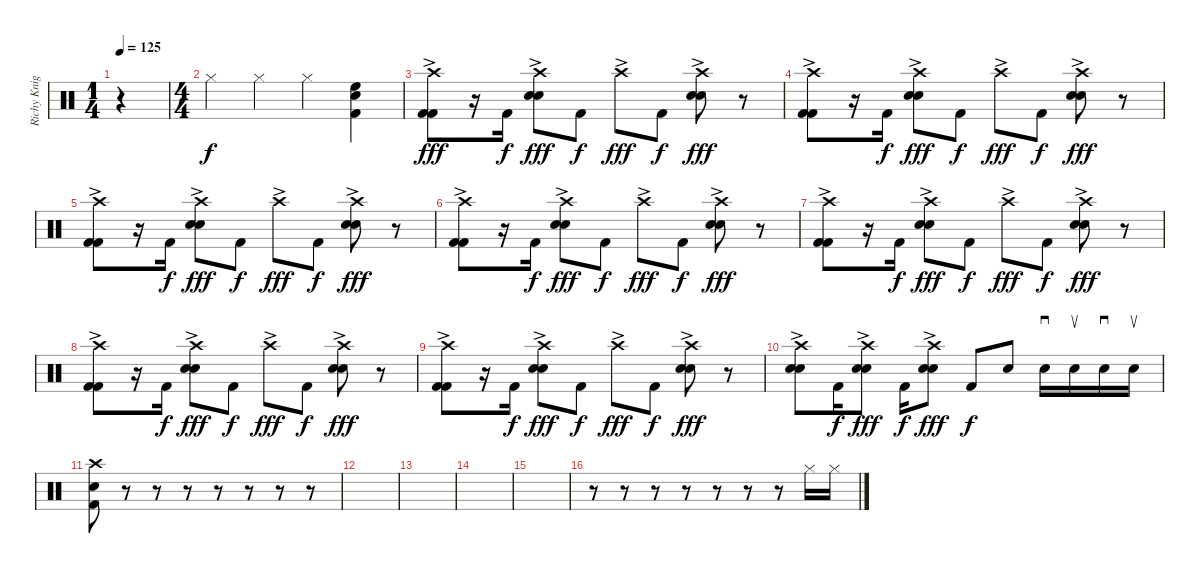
\track ("Richy Knight" "Richy Knig") {instrument percussion}
\staff {score}
\articulation defaults
\ts (1 4)
\tempo 125
\clef neutral
\ks c
r.4{dy f} |
\ts (4 4)
"Hi-Hat (closed)".4 "Hi-Hat (closed)".4 "Hi-Hat (closed)".4 ("High Floor Tom (hit)" "Electric Snare (hit)" "Kick (hit) 2").4{bd 60} |
("Crash high (hit)"{ac} "Kick (hit) 2"{ac} "Kick (hit) 2"{ac}).8{dy fff} r.16 "Kick (hit) 2".16{dy f} ("Crash high (hit)"{ac} "Electric Snare (hit)"{ac} "Electric Snare (hit)"{ac}).8{dy fff} "Kick (hit) 2".8{dy f} "Crash high (hit)"{ac}.8{dy fff} "Kick (hit) 2".8{dy f} ("Crash high (hit)"{ac} "Electric Snare (hit)"{ac} "Electric Snare (hit)"{ac}).8{dy fff} r.8 |
("Crash high (hit)"{ac} "Kick (hit) 2"{ac} "Kick (hit) 2"{ac}).8 r.16 "Kick (hit) 2".16{dy f} ("Crash high (hit)"{ac} "Electric Snare (hit)"{ac} "Electric Snare (hit)"{ac}).8{dy fff} "Kick (hit) 2".8{dy f} "Crash high (hit)"{ac}.8{dy fff} "Kick (hit) 2".8{dy f} ("Crash high (hit)"{ac} "Electric Snare (hit)"{ac} "Electric Snare (hit)"{ac}).8{dy fff} r.8 |
("Crash high (hit)"{ac} "Kick (hit) 2"{ac} "Kick (hit) 2"{ac}).8 r.16 "Kick (hit) 2".16{dy f} ("Crash high (hit)"{ac} "Electric Snare (hit)"{ac} "Electric Snare (hit)"{ac}).8{dy fff} "Kick (hit) 2".8{dy f} "Crash high (hit)"{ac}.8{dy fff} "Kick (hit) 2".8{dy f} ("Crash high (hit)"{ac} "Electric Snare (hit)"{ac} "Electric Snare (hit)"{ac}).8{dy fff} r.8 |
("Crash high (hit)"{ac} "Kick (hit) 2"{ac} "Kick (hit) 2"{ac}).8 r.16 "Kick (hit) 2".16{dy f} ("Crash high (hit)"{ac} "Electric Snare (hit)"{ac} "Electric Snare (hit)"{ac}).8{dy fff} "Kick (hit) 2".8{dy f} "Crash high (hit)"{ac}.8{dy fff} "Kick (hit) 2".8{dy f} ("Crash high (hit)"{ac} "Electric Snare (hit)"{ac} "Electric Snare (hit)"{ac}).8{dy fff} r.8 |
("Crash high (hit)"{ac} "Kick (hit) 2"{ac} "Kick (hit) 2"{ac}).8 r.16 "Kick (hit) 2".16{dy f} ("Crash high (hit)"{ac} "Electric Snare (hit)"{ac} "Electric Snare (hit)"{ac}).8{dy fff} "Kick (hit) 2".8{dy f} "Crash high (hit)"{ac}.8{dy fff} "Kick (hit) 2".8{dy f} ("Crash high (hit)"{ac} "Electric Snare (hit)"{ac} "Electric Snare (hit)"{ac}).8{dy fff} r.8 |
("Crash high (hit)"{ac} "Kick (hit) 2"{ac} "Kick (hit) 2"{ac}).8 r.16 "Kick (hit) 2".16{dy f} ("Crash high (hit)"{ac} "Electric Snare (hit)"{ac} "Electric Snare (hit)"{ac}).8{dy fff} "Kick (hit) 2".8{dy f} "Crash high (hit)"{ac}.8{dy fff} "Kick (hit) 2".8{dy f} ("Crash high (hit)"{ac} "Electric Snare (hit)"{ac} "Electric Snare (hit)"{ac}).8{dy fff} r.8 |
("Crash high (hit)"{ac} "Kick (hit) 2"{ac} "Kick (hit) 2"{ac}).8 r.16 "Kick (hit) 2".16{dy f} ("Crash high (hit)"{ac} "Electric Snare (hit)"{ac} "Electric Snare (hit)"{ac}).8{dy fff} "Kick (hit) 2".8{dy f} "Crash high (hit)"{ac}.8{dy fff} "Kick (hit) 2".8{dy f} ("Crash high (hit)"{ac} "Electric Snare (hit)"{ac} "Electric Snare (hit)"{ac}).8{dy fff} r.8 |
("Crash high (hit)"{ac} "Electric Snare (hit)"{ac} "Electric Snare (hit)"{ac}).8 "Kick (hit) 2".16{dy f} ("Crash high (hit)"{ac} "Electric Snare (hit)"{ac} "Electric Snare (hit)"{ac}).8{dy fff} "Kick (hit) 2".16{dy f} ("Crash high (hit)"{ac} "Electric Snare (hit)"{ac} "Electric Snare (hit)"{ac}).8{dy fff} "Kick (hit) 2".8{dy f} "Electric Snare (hit)".8 "Electric Snare (hit)".16{sd} "Electric Snare (hit)".16{su} "Electric Snare (hit)".16{sd} "Electric Snare (hit)".16{su} |
("Crash high (hit)" "Electric Snare (hit)" "Kick (hit) 2").8 r.8 r.8 r.8 r.8 r.8 r.8 r.8 |
|
|
|
|
r.8 r.8 r.8 r.8 r.8 r.8 r.8 "Hi-Hat (closed)".16 "Hi-Hat (closed)".16
